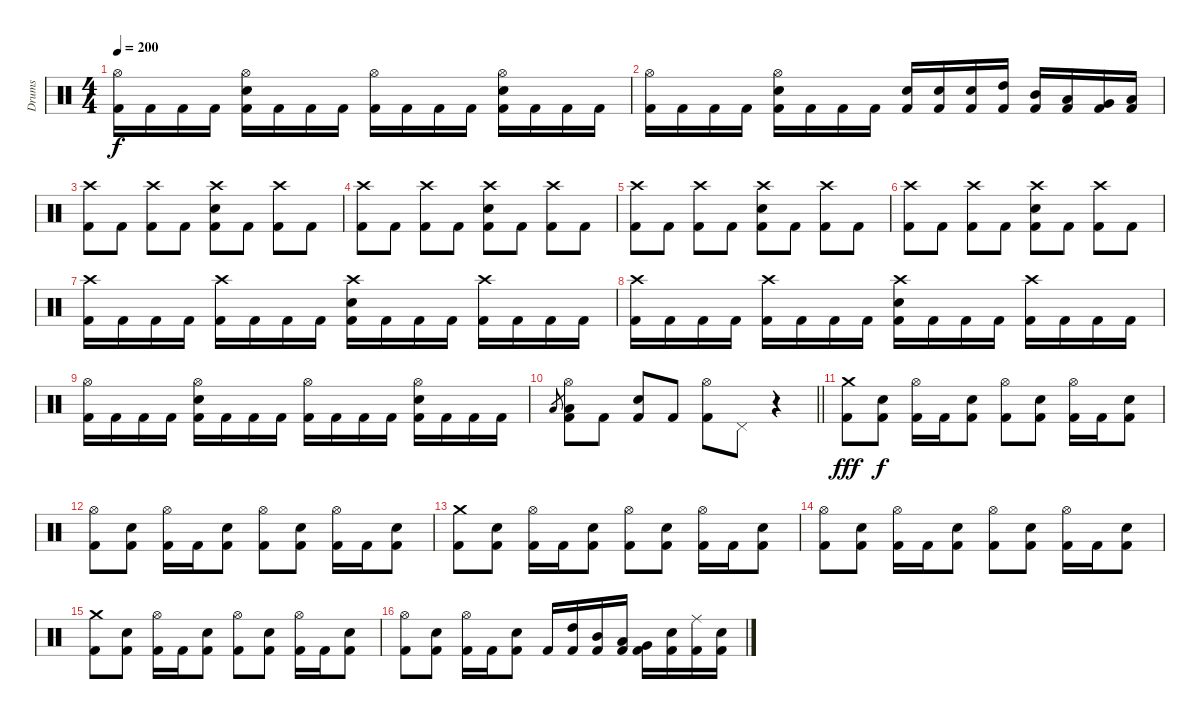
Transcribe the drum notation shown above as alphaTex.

\track ("Drums" "Drums") {instrument percussion}
\staff {score}
\articulation defaults
\ts (4 4)
\tempo 200
\clef neutral
\ks c
("Hi-Hat (open)" "Kick (hit) 2").16{dy f} "Kick (hit) 2".16 "Kick (hit) 2".16 "Kick (hit) 2".16 ("Hi-Hat (open)" "Electric Snare (hit)" "Kick (hit) 2").16 "Kick (hit) 2".16 "Kick (hit) 2".16 "Kick (hit) 2".16 ("Hi-Hat (open)" "Kick (hit) 2").16 "Kick (hit) 2".16 "Kick (hit) 2".16 "Kick (hit) 2".16 ("Hi-Hat (open)" "Electric Snare (hit)" "Kick (hit) 2").16 "Kick (hit) 2".16 "Kick (hit) 2".16 "Kick (hit) 2".16 |
("Hi-Hat (open)" "Kick (hit) 2").16 "Kick (hit) 2".16 "Kick (hit) 2".16 "Kick (hit) 2".16 ("Hi-Hat (open)" "Electric Snare (hit)" "Kick (hit) 2").16 "Kick (hit) 2".16 "Kick (hit) 2".16 "Kick (hit) 2".16 ("Electric Snare (hit)" "Kick (hit) 2").16 ("Electric Snare (hit)" "Kick (hit) 2").16 ("Electric Snare (hit)" "Kick (hit) 2").16 ("High Tom (hit)" "Kick (hit) 2").16 ("Mid Tom (hit)" "Kick (hit) 2").16 ("Low Tom (hit)" "Kick (hit) 2").16 ("Very Low Tom (hit)" "Kick (hit) 2").16 ("Low Floor Tom (hit)" "Kick (hit) 2").16 |
("Crash high (hit)" "Kick (hit) 2").8 "Kick (hit) 2".8 ("Crash high (hit)" "Kick (hit) 2").8 "Kick (hit) 2".8 ("Crash high (hit)" "Electric Snare (hit)" "Kick (hit) 2").8 "Kick (hit) 2".8 ("Crash high (hit)" "Kick (hit) 2").8 "Kick (hit) 2".8 |
("Crash high (hit)" "Kick (hit) 2").8 "Kick (hit) 2".8 ("Crash high (hit)" "Kick (hit) 2").8 "Kick (hit) 2".8 ("Crash high (hit)" "Electric Snare (hit)" "Kick (hit) 2").8 "Kick (hit) 2".8 ("Crash high (hit)" "Kick (hit) 2").8 "Kick (hit) 2".8 |
("Crash high (hit)" "Kick (hit) 2").8 "Kick (hit) 2".8 ("Crash high (hit)" "Kick (hit) 2").8 "Kick (hit) 2".8 ("Crash high (hit)" "Electric Snare (hit)" "Kick (hit) 2").8 "Kick (hit) 2".8 ("Crash high (hit)" "Kick (hit) 2").8 "Kick (hit) 2".8 |
("Crash high (hit)" "Kick (hit) 2").8 "Kick (hit) 2".8 ("Crash high (hit)" "Kick (hit) 2").8 "Kick (hit) 2".8 ("Crash high (hit)" "Electric Snare (hit)" "Kick (hit) 2").8 "Kick (hit) 2".8 ("Crash high (hit)" "Kick (hit) 2").8 "Kick (hit) 2".8 |
("Crash high (hit)" "Kick (hit) 2").16 "Kick (hit) 2".16 "Kick (hit) 2".16 "Kick (hit) 2".16 ("Crash high (hit)" "Kick (hit) 2").16 "Kick (hit) 2".16 "Kick (hit) 2".16 "Kick (hit) 2".16 ("Crash high (hit)" "Electric Snare (hit)" "Kick (hit) 2").16 "Kick (hit) 2".16 "Kick (hit) 2".16 "Kick (hit) 2".16 ("Crash high (hit)" "Kick (hit) 2").16 "Kick (hit) 2".16 "Kick (hit) 2".16 "Kick (hit) 2".16 |
("Crash high (hit)" "Kick (hit) 2").16 "Kick (hit) 2".16 "Kick (hit) 2".16 "Kick (hit) 2".16 ("Crash high (hit)" "Kick (hit) 2").16 "Kick (hit) 2".16 "Kick (hit) 2".16 "Kick (hit) 2".16 ("Crash high (hit)" "Electric Snare (hit)" "Kick (hit) 2").16 "Kick (hit) 2".16 "Kick (hit) 2".16 "Kick (hit) 2".16 ("Crash high (hit)" "Kick (hit) 2").16 "Kick (hit) 2".16 "Kick (hit) 2".16 "Kick (hit) 2".16 |
("Hi-Hat (open)" "Kick (hit) 2").16 "Kick (hit) 2".16 "Kick (hit) 2".16 "Kick (hit) 2".16 ("Hi-Hat (open)" "Electric Snare (hit)" "Kick (hit) 2").16 "Kick (hit) 2".16 "Kick (hit) 2".16 "Kick (hit) 2".16 ("Hi-Hat (open)" "Kick (hit) 2").16 "Kick (hit) 2".16 "Kick (hit) 2".16 "Kick (hit) 2".16 ("Hi-Hat (open)" "Electric Snare (hit)" "Kick (hit) 2").16 "Kick (hit) 2".16 "Kick (hit) 2".16 "Kick (hit) 2".16 |
\barLineRight lightlight "Low Tom (hit)".8{gr}
("Hi-Hat (open)" "Low Tom (hit)" "Kick (hit) 2").8 "Kick (hit) 2".8 ("Electric Snare (hit)" "Kick (hit) 2").8 "Kick (hit) 2".8 ("Hi-Hat (open)" "Kick (hit) 2").8 "Pedal Hi-Hat (hit)".8 r.4 |
\section ("" "")
("Crash medium (hit)" "Kick (hit) 2").8{dy fff} ("Electric Snare (hit)" "Kick (hit) 2").8{dy f} ("Hi-Hat (open)" "Kick (hit) 2").16 "Kick (hit) 2".16 ("Electric Snare (hit)" "Kick (hit) 2").8 ("Hi-Hat (open)" "Kick (hit) 2").8 ("Electric Snare (hit)" "Kick (hit) 2").8 ("Hi-Hat (open)" "Kick (hit) 2").16 "Kick (hit) 2".16 ("Electric Snare (hit)" "Kick (hit) 2").8 |
("Hi-Hat (open)" "Kick (hit) 2").8 ("Electric Snare (hit)" "Kick (hit) 2").8 ("Hi-Hat (open)" "Kick (hit) 2").16 "Kick (hit) 2".16 ("Electric Snare (hit)" "Kick (hit) 2").8 ("Hi-Hat (open)" "Kick (hit) 2").8 ("Electric Snare (hit)" "Kick (hit) 2").8 ("Hi-Hat (open)" "Kick (hit) 2").16 "Kick (hit) 2".16 ("Electric Snare (hit)" "Kick (hit) 2").8 |
("Crash medium (hit)" "Kick (hit) 2").8 ("Electric Snare (hit)" "Kick (hit) 2").8 ("Hi-Hat (open)" "Kick (hit) 2").16 "Kick (hit) 2".16 ("Electric Snare (hit)" "Kick (hit) 2").8 ("Hi-Hat (open)" "Kick (hit) 2").8 ("Electric Snare (hit)" "Kick (hit) 2").8 ("Hi-Hat (open)" "Kick (hit) 2").16 "Kick (hit) 2".16 ("Electric Snare (hit)" "Kick (hit) 2").8 |
("Hi-Hat (open)" "Kick (hit) 2").8 ("Electric Snare (hit)" "Kick (hit) 2").8 ("Hi-Hat (open)" "Kick (hit) 2").16 "Kick (hit) 2".16 ("Electric Snare (hit)" "Kick (hit) 2").8 ("Hi-Hat (open)" "Kick (hit) 2").8 ("Electric Snare (hit)" "Kick (hit) 2").8 ("Hi-Hat (open)" "Kick (hit) 2").16 "Kick (hit) 2".16 ("Electric Snare (hit)" "Kick (hit) 2").8 |
("Crash medium (hit)" "Kick (hit) 2").8 ("Electric Snare (hit)" "Kick (hit) 2").8 ("Hi-Hat (open)" "Kick (hit) 2").16 "Kick (hit) 2".16 ("Electric Snare (hit)" "Kick (hit) 2").8 ("Hi-Hat (open)" "Kick (hit) 2").8 ("Electric Snare (hit)" "Kick (hit) 2").8 ("Hi-Hat (open)" "Kick (hit) 2").16 "Kick (hit) 2".16 ("Electric Snare (hit)" "Kick (hit) 2").8 |
("Hi-Hat (open)" "Kick (hit) 2").8 ("Electric Snare (hit)" "Kick (hit) 2").8 ("Hi-Hat (open)" "Kick (hit) 2").16 "Kick (hit) 2".16 ("Electric Snare (hit)" "Kick (hit) 2").8 "Kick (hit) 2".16 ("High Tom (hit)" "Kick (hit) 2").16 ("Mid Tom (hit)" "Kick (hit) 2").16 ("Low Tom (hit)" "Kick (hit) 2").16 ("Very Low Tom (hit)" "Kick (hit) 2").16 ("Electric Snare (hit)" "Kick (hit) 2").16 ("Ride (middle)" "Kick (hit) 2").16 ("Electric Snare (hit)" "Kick (hit) 2").16
